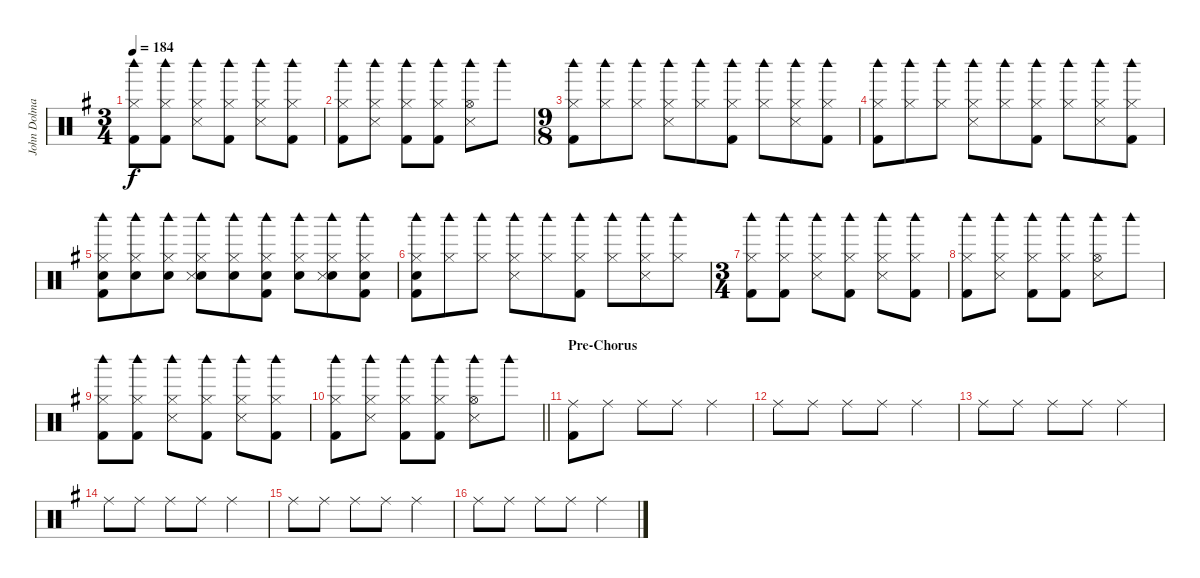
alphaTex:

\track ("John Dolmayan [Drums]" "John Dolma") {instrument percussion}
\staff {score}
\articulation defaults
\ts (3 4)
\tempo 184
\clef neutral
\ks eminor
("Woodblock high (hit)" "Hi-Hat (closed)" "Kick (hit) 2").8{dy f} ("Woodblock high (hit)" "Hi-Hat (closed)" "Kick (hit) 2").8 ("Woodblock high (hit)" "Hi-Hat (closed)" "Snare (side stick) 3").8 ("Woodblock high (hit)" "Hi-Hat (closed)" "Kick (hit) 2").8 ("Woodblock high (hit)" "Hi-Hat (closed)" "Snare (side stick) 3").8 ("Woodblock high (hit)" "Hi-Hat (closed)" "Kick (hit) 2").8 |
("Woodblock high (hit)" "Hi-Hat (closed)" "Kick (hit) 2").8 ("Woodblock high (hit)" "Hi-Hat (closed)" "Snare (side stick) 3").8 ("Woodblock high (hit)" "Hi-Hat (closed)" "Kick (hit) 2").8 ("Woodblock high (hit)" "Hi-Hat (closed)" "Kick (hit) 2").8 ("Woodblock high (hit)" "Hi-Hat (open)" "Snare (side stick) 3").8 "Woodblock high (hit)".8 |
\ts (9 8)
("Woodblock high (hit)" "Hi-Hat (closed)" "Kick (hit) 2").8 ("Woodblock high (hit)" "Hi-Hat (closed)").8 ("Woodblock high (hit)" "Hi-Hat (closed)").8 ("Woodblock high (hit)" "Hi-Hat (closed)" "Snare (side stick) 3").8 ("Woodblock high (hit)" "Hi-Hat (closed)").8 ("Woodblock high (hit)" "Hi-Hat (closed)" "Kick (hit) 2").8 ("Woodblock high (hit)" "Hi-Hat (closed)").8 ("Woodblock high (hit)" "Hi-Hat (closed)" "Snare (side stick) 3").8 ("Woodblock high (hit)" "Hi-Hat (closed)" "Kick (hit) 2").8 |
("Woodblock high (hit)" "Hi-Hat (closed)" "Kick (hit) 2").8 ("Woodblock high (hit)" "Hi-Hat (closed)").8 ("Woodblock high (hit)" "Hi-Hat (closed)").8 ("Woodblock high (hit)" "Hi-Hat (closed)" "Snare (side stick) 3").8 ("Woodblock high (hit)" "Hi-Hat (closed)").8 ("Woodblock high (hit)" "Hi-Hat (closed)" "Kick (hit) 2").8 ("Woodblock high (hit)" "Hi-Hat (closed)").8 ("Woodblock high (hit)" "Hi-Hat (closed)" "Snare (side stick) 3").8 ("Woodblock high (hit)" "Hi-Hat (closed)" "Kick (hit) 2").8 |
("Woodblock high (hit)" "Hand Clap (hit)" "Hi-Hat (closed)" "Kick (hit) 2").8 ("Woodblock high (hit)" "Hand Clap (hit)" "Hi-Hat (closed)").8 ("Woodblock high (hit)" "Hand Clap (hit)" "Hi-Hat (closed)").8 ("Woodblock high (hit)" "Hand Clap (hit)" "Hi-Hat (closed)" "Snare (side stick) 3").8 ("Woodblock high (hit)" "Hand Clap (hit)" "Hi-Hat (closed)").8 ("Woodblock high (hit)" "Hand Clap (hit)" "Hi-Hat (closed)" "Kick (hit) 2").8 ("Woodblock high (hit)" "Hand Clap (hit)" "Hi-Hat (closed)").8 ("Woodblock high (hit)" "Hand Clap (hit)" "Hi-Hat (closed)" "Snare (side stick) 3").8 ("Woodblock high (hit)" "Hand Clap (hit)" "Hi-Hat (closed)" "Kick (hit) 2").8 |
("Woodblock high (hit)" "Hand Clap (hit)" "Hi-Hat (closed)" "Kick (hit) 2").8 ("Woodblock high (hit)" "Hi-Hat (closed)").8 ("Woodblock high (hit)" "Hi-Hat (closed)").8 ("Woodblock high (hit)" "Hi-Hat (closed)" "Snare (side stick) 3").8 ("Woodblock high (hit)" "Hi-Hat (closed)").8 ("Woodblock high (hit)" "Hi-Hat (closed)" "Kick (hit) 2").8 ("Woodblock high (hit)" "Hi-Hat (closed)").8 ("Woodblock high (hit)" "Hi-Hat (closed)" "Snare (side stick) 3").8 ("Woodblock high (hit)" "Hi-Hat (closed)").8 |
\ts (3 4)
("Woodblock high (hit)" "Hi-Hat (closed)" "Kick (hit) 2").8 ("Woodblock high (hit)" "Hi-Hat (closed)" "Kick (hit) 2").8 ("Woodblock high (hit)" "Hi-Hat (closed)" "Snare (side stick) 3").8 ("Woodblock high (hit)" "Hi-Hat (closed)" "Kick (hit) 2").8 ("Woodblock high (hit)" "Hi-Hat (closed)" "Snare (side stick) 3").8 ("Woodblock high (hit)" "Hi-Hat (closed)" "Kick (hit) 2").8 |
("Woodblock high (hit)" "Hi-Hat (closed)" "Kick (hit) 2").8 ("Woodblock high (hit)" "Hi-Hat (closed)" "Snare (side stick) 3").8 ("Woodblock high (hit)" "Hi-Hat (closed)" "Kick (hit) 2").8 ("Woodblock high (hit)" "Hi-Hat (closed)" "Kick (hit) 2").8 ("Woodblock high (hit)" "Hi-Hat (open)" "Snare (side stick) 3").8 "Woodblock high (hit)".8 |
("Woodblock high (hit)" "Hi-Hat (closed)" "Kick (hit) 2").8 ("Woodblock high (hit)" "Hi-Hat (closed)" "Kick (hit) 2").8 ("Woodblock high (hit)" "Hi-Hat (closed)" "Snare (side stick) 3").8 ("Woodblock high (hit)" "Hi-Hat (closed)" "Kick (hit) 2").8 ("Woodblock high (hit)" "Hi-Hat (closed)" "Snare (side stick) 3").8 ("Woodblock high (hit)" "Hi-Hat (closed)" "Kick (hit) 2").8 |
\barLineRight lightlight
("Woodblock high (hit)" "Hi-Hat (closed)" "Kick (hit) 2").8 ("Woodblock high (hit)" "Hi-Hat (closed)" "Snare (side stick) 3").8 ("Woodblock high (hit)" "Hi-Hat (closed)" "Kick (hit) 2").8 ("Woodblock high (hit)" "Hi-Hat (closed)" "Kick (hit) 2").8 ("Woodblock high (hit)" "Hi-Hat (open)" "Snare (side stick) 3").8 "Woodblock high (hit)".8 |
\section ("" "Pre-Chorus")
("Ride (middle)" "Kick (hit) 2").8 "Ride (middle)".8 "Ride (middle)".8 "Ride (middle)".8 "Ride (middle)".4 |
"Ride (middle)".8 "Ride (middle)".8 "Ride (middle)".8 "Ride (middle)".8 "Ride (middle)".4 |
"Ride (middle)".8 "Ride (middle)".8 "Ride (middle)".8 "Ride (middle)".8 "Ride (middle)".4 |
"Ride (middle)".8 "Ride (middle)".8 "Ride (middle)".8 "Ride (middle)".8 "Ride (middle)".4 |
"Ride (middle)".8 "Ride (middle)".8 "Ride (middle)".8 "Ride (middle)".8 "Ride (middle)".4 |
"Ride (middle)".8 "Ride (middle)".8 "Ride (middle)".8 "Ride (middle)".8 "Ride (middle)".4
